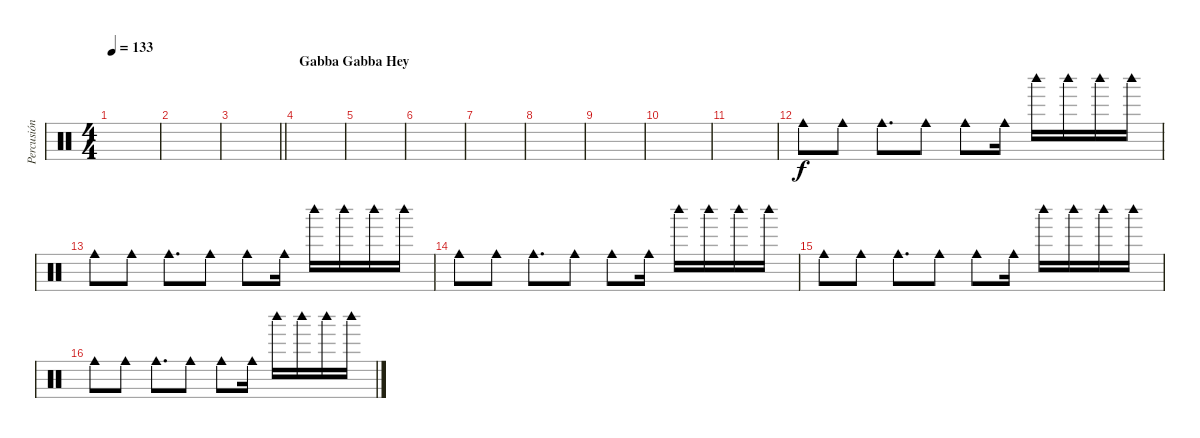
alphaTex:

\track ("Percusión Menor" "Percusión ") {instrument percussion}
\staff {score}
\articulation defaults
\ts (4 4)
\tempo 133
\clef neutral
\ks c
|
|
\barLineRight lightlight
|
\section ("" "Gabba Gabba Hey")
|
|
|
|
|
|
|
|
"Cowbell medium (hit)".8 "Cowbell medium (hit)".8 "Cowbell medium (hit)".8{d} "Cowbell medium (hit)".8 "Cowbell medium (hit)".8 "Cowbell medium (hit)".16 "Woodblock high (hit)".16 "Woodblock high (hit)".16 "Woodblock high (hit)".16 "Woodblock high (hit)".16 |
"Cowbell medium (hit)".8 "Cowbell medium (hit)".8 "Cowbell medium (hit)".8{d} "Cowbell medium (hit)".8 "Cowbell medium (hit)".8 "Cowbell medium (hit)".16 "Woodblock high (hit)".16 "Woodblock high (hit)".16 "Woodblock high (hit)".16 "Woodblock high (hit)".16 |
"Cowbell medium (hit)".8 "Cowbell medium (hit)".8 "Cowbell medium (hit)".8{d} "Cowbell medium (hit)".8 "Cowbell medium (hit)".8 "Cowbell medium (hit)".16 "Woodblock high (hit)".16 "Woodblock high (hit)".16 "Woodblock high (hit)".16 "Woodblock high (hit)".16 |
"Cowbell medium (hit)".8 "Cowbell medium (hit)".8 "Cowbell medium (hit)".8{d} "Cowbell medium (hit)".8 "Cowbell medium (hit)".8 "Cowbell medium (hit)".16 "Woodblock high (hit)".16 "Woodblock high (hit)".16 "Woodblock high (hit)".16 "Woodblock high (hit)".16 |
"Cowbell medium (hit)".8 "Cowbell medium (hit)".8 "Cowbell medium (hit)".8{d} "Cowbell medium (hit)".8 "Cowbell medium (hit)".8 "Cowbell medium (hit)".16 "Woodblock high (hit)".16 "Woodblock high (hit)".16 "Woodblock high (hit)".16 "Woodblock high (hit)".16
